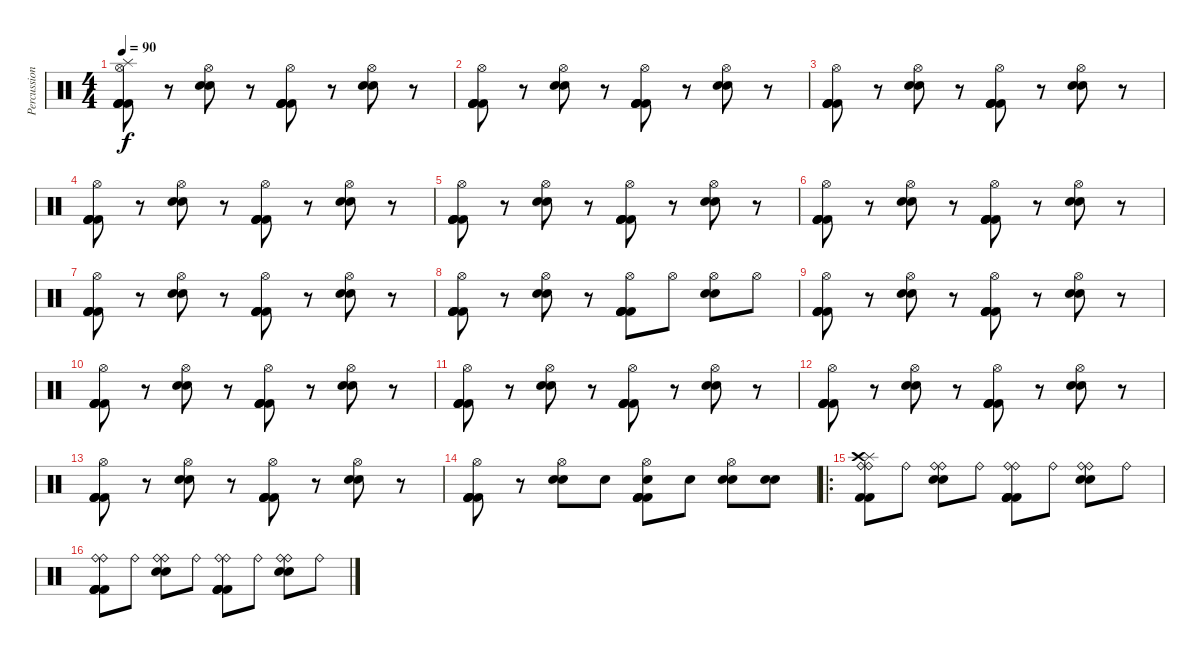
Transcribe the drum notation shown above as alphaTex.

\track ("Percussion" "Percussion") {instrument percussion}
\staff {score}
\articulation defaults
\ts (4 4)
\tempo 90
\clef neutral
\ks c
("Hi-Hat (open)" "Splash (hit)" "Kick (hit) 2" "Kick (hit) 2" "Kick (hit) 2" "Kick (hit) 2").8{dy f} r.8 ("Hi-Hat (open)" "Electric Snare (hit)" "Electric Snare (hit)").8 r.8 ("Hi-Hat (open)" "Kick (hit) 2" "Kick (hit) 2" "Kick (hit) 2" "Kick (hit) 2").8 r.8 ("Hi-Hat (open)" "Electric Snare (hit)" "Electric Snare (hit)").8 r.8 |
("Hi-Hat (open)" "Kick (hit) 2" "Kick (hit) 2" "Kick (hit) 2" "Kick (hit) 2").8 r.8 ("Hi-Hat (open)" "Electric Snare (hit)" "Electric Snare (hit)").8 r.8 ("Hi-Hat (open)" "Kick (hit) 2" "Kick (hit) 2" "Kick (hit) 2" "Kick (hit) 2").8 r.8 ("Hi-Hat (open)" "Electric Snare (hit)" "Electric Snare (hit)").8 r.8 |
("Hi-Hat (open)" "Kick (hit) 2" "Kick (hit) 2" "Kick (hit) 2" "Kick (hit) 2").8 r.8 ("Hi-Hat (open)" "Electric Snare (hit)" "Electric Snare (hit)").8 r.8 ("Hi-Hat (open)" "Kick (hit) 2" "Kick (hit) 2" "Kick (hit) 2" "Kick (hit) 2").8 r.8 ("Hi-Hat (open)" "Electric Snare (hit)" "Electric Snare (hit)").8 r.8 |
("Hi-Hat (open)" "Kick (hit) 2" "Kick (hit) 2" "Kick (hit) 2" "Kick (hit) 2").8 r.8 ("Hi-Hat (open)" "Electric Snare (hit)" "Electric Snare (hit)").8 r.8 ("Hi-Hat (open)" "Kick (hit) 2" "Kick (hit) 2" "Kick (hit) 2" "Kick (hit) 2").8 r.8 ("Hi-Hat (open)" "Electric Snare (hit)" "Electric Snare (hit)").8 r.8 |
("Hi-Hat (open)" "Kick (hit) 2" "Kick (hit) 2" "Kick (hit) 2" "Kick (hit) 2").8 r.8 ("Hi-Hat (open)" "Electric Snare (hit)" "Electric Snare (hit)").8 r.8 ("Hi-Hat (open)" "Kick (hit) 2" "Kick (hit) 2" "Kick (hit) 2" "Kick (hit) 2").8 r.8 ("Hi-Hat (open)" "Electric Snare (hit)" "Electric Snare (hit)").8 r.8 |
("Hi-Hat (open)" "Kick (hit) 2" "Kick (hit) 2" "Kick (hit) 2" "Kick (hit) 2").8 r.8 ("Hi-Hat (open)" "Electric Snare (hit)" "Electric Snare (hit)").8 r.8 ("Hi-Hat (open)" "Kick (hit) 2" "Kick (hit) 2" "Kick (hit) 2" "Kick (hit) 2").8 r.8 ("Hi-Hat (open)" "Electric Snare (hit)" "Electric Snare (hit)").8 r.8 |
("Hi-Hat (open)" "Kick (hit) 2" "Kick (hit) 2" "Kick (hit) 2" "Kick (hit) 2").8 r.8 ("Hi-Hat (open)" "Electric Snare (hit)" "Electric Snare (hit)").8 r.8 ("Hi-Hat (open)" "Kick (hit) 2" "Kick (hit) 2" "Kick (hit) 2" "Kick (hit) 2").8 r.8 ("Hi-Hat (open)" "Electric Snare (hit)" "Electric Snare (hit)").8 r.8 |
("Hi-Hat (open)" "Kick (hit) 2" "Kick (hit) 2" "Kick (hit) 2" "Kick (hit) 2").8 r.8 ("Hi-Hat (open)" "Electric Snare (hit)" "Electric Snare (hit)").8 r.8 ("Hi-Hat (open)" "Kick (hit) 2" "Kick (hit) 2" "Kick (hit) 2" "Kick (hit) 2").8 "Hi-Hat (open)".8 ("Hi-Hat (open)" "Electric Snare (hit)" "Electric Snare (hit)").8 "Hi-Hat (open)".8 |
("Hi-Hat (open)" "Kick (hit) 2" "Kick (hit) 2" "Kick (hit) 2" "Kick (hit) 2").8 r.8 ("Hi-Hat (open)" "Electric Snare (hit)" "Electric Snare (hit)").8 r.8 ("Hi-Hat (open)" "Kick (hit) 2" "Kick (hit) 2" "Kick (hit) 2" "Kick (hit) 2").8 r.8 ("Hi-Hat (open)" "Electric Snare (hit)" "Electric Snare (hit)").8 r.8 |
("Hi-Hat (open)" "Kick (hit) 2" "Kick (hit) 2" "Kick (hit) 2" "Kick (hit) 2").8 r.8 ("Hi-Hat (open)" "Electric Snare (hit)" "Electric Snare (hit)").8 r.8 ("Hi-Hat (open)" "Kick (hit) 2" "Kick (hit) 2" "Kick (hit) 2" "Kick (hit) 2").8 r.8 ("Hi-Hat (open)" "Electric Snare (hit)" "Electric Snare (hit)").8 r.8 |
("Hi-Hat (open)" "Kick (hit) 2" "Kick (hit) 2" "Kick (hit) 2" "Kick (hit) 2").8 r.8 ("Hi-Hat (open)" "Electric Snare (hit)" "Electric Snare (hit)").8 r.8 ("Hi-Hat (open)" "Kick (hit) 2" "Kick (hit) 2" "Kick (hit) 2" "Kick (hit) 2").8 r.8 ("Hi-Hat (open)" "Electric Snare (hit)" "Electric Snare (hit)").8 r.8 |
("Hi-Hat (open)" "Kick (hit) 2" "Kick (hit) 2" "Kick (hit) 2" "Kick (hit) 2").8 r.8 ("Hi-Hat (open)" "Electric Snare (hit)" "Electric Snare (hit)").8 r.8 ("Hi-Hat (open)" "Kick (hit) 2" "Kick (hit) 2" "Kick (hit) 2" "Kick (hit) 2").8 r.8 ("Hi-Hat (open)" "Electric Snare (hit)" "Electric Snare (hit)").8 r.8 |
("Hi-Hat (open)" "Kick (hit) 2" "Kick (hit) 2" "Kick (hit) 2" "Kick (hit) 2").8 r.8 ("Hi-Hat (open)" "Electric Snare (hit)" "Electric Snare (hit)").8 r.8 ("Hi-Hat (open)" "Kick (hit) 2" "Kick (hit) 2" "Kick (hit) 2" "Kick (hit) 2").8 r.8 ("Hi-Hat (open)" "Electric Snare (hit)" "Electric Snare (hit)").8 r.8 |
("Hi-Hat (open)" "Kick (hit) 2" "Kick (hit) 2" "Kick (hit) 2" "Kick (hit) 2").8 r.8 ("Hi-Hat (open)" "Electric Snare (hit)" "Electric Snare (hit)").8 "Electric Snare (hit)".8 ("Hi-Hat (open)" "Electric Snare (hit)" "Kick (hit) 2" "Kick (hit) 2" "Kick (hit) 2" "Kick (hit) 2").8 "Electric Snare (hit)".8 ("Hi-Hat (open)" "Electric Snare (hit)" "Electric Snare (hit)").8 ("Electric Snare (hit)" "Electric Snare (hit)").8 |
\ro
("Ride (bell)" "Ride (bell)" "Splash (hit)" "Crash high (hit)" "Kick (hit) 2" "Kick (hit) 2").8 "Ride (bell)".8 ("Ride (bell)" "Electric Snare (hit)" "Electric Snare (hit)" "Ride (bell)").8 "Ride (bell)".8 ("Ride (bell)" "Ride (bell)" "Kick (hit) 2" "Kick (hit) 2" "Kick (hit) 2" "Kick (hit) 2").8 "Ride (bell)".8 ("Ride (bell)" "Electric Snare (hit)" "Electric Snare (hit)" "Ride (bell)").8 "Ride (bell)".8 |
("Ride (bell)" "Ride (bell)" "Kick (hit) 2" "Kick (hit) 2" "Kick (hit) 2" "Kick (hit) 2").8 "Ride (bell)".8 ("Ride (bell)" "Electric Snare (hit)" "Electric Snare (hit)" "Ride (bell)").8 "Ride (bell)".8 ("Ride (bell)" "Ride (bell)" "Kick (hit) 2" "Kick (hit) 2" "Kick (hit) 2" "Kick (hit) 2").8 "Ride (bell)".8 ("Ride (bell)" "Electric Snare (hit)" "Electric Snare (hit)" "Ride (bell)").8 "Ride (bell)".8
